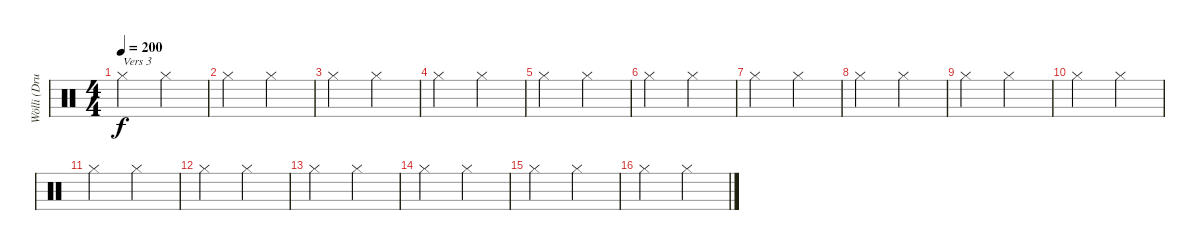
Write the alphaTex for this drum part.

\track ("Wölli (Drums)" "Wölli (Dru") {instrument percussion}
\staff {score}
\articulation defaults
\ts (4 4)
\tempo 200
\clef neutral
\ks c "Hi-Hat (closed)".2{txt "Vers 3" dy f} "Hi-Hat (closed)".2
|
"Hi-Hat (closed)".2 "Hi-Hat (closed)".2 |
"Hi-Hat (closed)".2 "Hi-Hat (closed)".2 |
"Hi-Hat (closed)".2 "Hi-Hat (closed)".2 |
"Hi-Hat (closed)".2 "Hi-Hat (closed)".2 |
"Hi-Hat (closed)".2 "Hi-Hat (closed)".2 |
"Hi-Hat (closed)".2 "Hi-Hat (closed)".2 |
"Hi-Hat (closed)".2 "Hi-Hat (closed)".2 |
"Hi-Hat (closed)".2 "Hi-Hat (closed)".2 |
"Hi-Hat (closed)".2 "Hi-Hat (closed)".2 |
"Hi-Hat (closed)".2 "Hi-Hat (closed)".2 |
"Hi-Hat (closed)".2 "Hi-Hat (closed)".2 |
"Hi-Hat (closed)".2 "Hi-Hat (closed)".2 |
"Hi-Hat (closed)".2 "Hi-Hat (closed)".2 |
"Hi-Hat (closed)".2 "Hi-Hat (closed)".2 |
"Hi-Hat (closed)".2 "Hi-Hat (closed)".2
